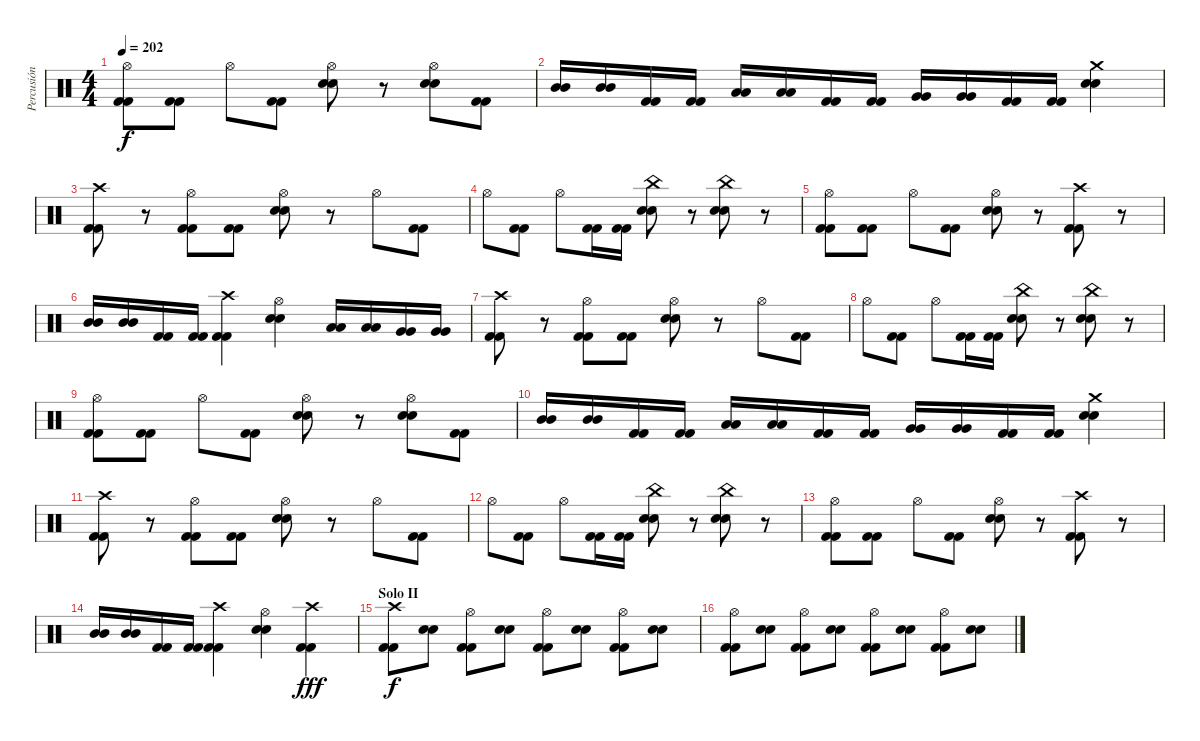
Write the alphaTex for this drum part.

\track ("Percusión" "Percusión") {instrument percussion}
\staff {score}
\articulation defaults
\ts (4 4)
\tempo 202
\clef neutral
\ks c
("Hi-Hat (open)" "Kick (hit) 2" "Kick (hit) 2").8{dy f} ("Kick (hit) 2" "Kick (hit) 2").8 "Hi-Hat (open)".8 ("Kick (hit) 2" "Kick (hit) 2").8 ("Hi-Hat (open)" "Snare (hit) 2" "Snare (hit) 2").8 r.8 ("Hi-Hat (open)" "Snare (hit) 2" "Snare (hit) 2").8 ("Kick (hit) 2" "Kick (hit) 2").8 |
("Mid Tom (hit)" "Mid Tom (hit)").16 ("Mid Tom (hit)" "Mid Tom (hit)").16 ("Kick (hit) 2" "Kick (hit) 2").16 ("Kick (hit) 2" "Kick (hit) 2").16 ("Low Tom (hit)" "Low Tom (hit)").16 ("Low Tom (hit)" "Low Tom (hit)").16 ("Kick (hit) 2" "Kick (hit) 2").16 ("Kick (hit) 2" "Kick (hit) 2").16 ("Very Low Tom (hit)" "Very Low Tom (hit)").16 ("Very Low Tom (hit)" "Very Low Tom (hit)").16 ("Kick (hit) 2" "Kick (hit) 2").16 ("Kick (hit) 2" "Kick (hit) 2").16 ("Crash medium (hit)" "Snare (hit) 2" "Snare (hit) 2").4 |
("Crash high (hit)" "Kick (hit) 2" "Kick (hit) 2").8 r.8 ("Hi-Hat (open)" "Kick (hit) 2" "Kick (hit) 2").8 ("Kick (hit) 2" "Kick (hit) 2").8 ("Hi-Hat (open)" "Snare (hit) 2" "Snare (hit) 2").8 r.8 "Hi-Hat (open)".8 ("Kick (hit) 2" "Kick (hit) 2").8 |
"Hi-Hat (open)".8 ("Kick (hit) 2" "Kick (hit) 2").8 "Hi-Hat (open)".8 ("Kick (hit) 2" "Kick (hit) 2").16 ("Kick (hit) 2" "Kick (hit) 2").16 ("China (hit)" "Snare (hit) 2" "Snare (hit) 2").8 r.8 ("China (hit)" "Snare (hit) 2" "Snare (hit) 2").8 r.8 |
("Hi-Hat (open)" "Kick (hit) 2" "Kick (hit) 2").8 ("Kick (hit) 2" "Kick (hit) 2").8 "Hi-Hat (open)".8 ("Kick (hit) 2" "Kick (hit) 2").8 ("Hi-Hat (open)" "Snare (hit) 2" "Snare (hit) 2").8 r.8 ("Crash high (hit)" "Kick (hit) 2" "Kick (hit) 2").8 r.8 |
("Mid Tom (hit)" "Mid Tom (hit)").16 ("Mid Tom (hit)" "Mid Tom (hit)").16 ("Kick (hit) 2" "Kick (hit) 2").16 ("Kick (hit) 2" "Kick (hit) 2").16 ("Crash high (hit)" "Kick (hit) 2" "Kick (hit) 2").4 ("Hi-Hat (open)" "Snare (hit) 2" "Snare (hit) 2").4 ("Low Tom (hit)" "Low Tom (hit)").16 ("Low Tom (hit)" "Low Tom (hit)").16 ("Very Low Tom (hit)" "Very Low Tom (hit)").16 ("Very Low Tom (hit)" "Very Low Tom (hit)").16 |
("Crash high (hit)" "Kick (hit) 2" "Kick (hit) 2").8 r.8 ("Hi-Hat (open)" "Kick (hit) 2" "Kick (hit) 2").8 ("Kick (hit) 2" "Kick (hit) 2").8 ("Hi-Hat (open)" "Snare (hit) 2" "Snare (hit) 2").8 r.8 "Hi-Hat (open)".8 ("Kick (hit) 2" "Kick (hit) 2").8 |
"Hi-Hat (open)".8 ("Kick (hit) 2" "Kick (hit) 2").8 "Hi-Hat (open)".8 ("Kick (hit) 2" "Kick (hit) 2").16 ("Kick (hit) 2" "Kick (hit) 2").16 ("China (hit)" "Snare (hit) 2" "Snare (hit) 2").8 r.8 ("China (hit)" "Snare (hit) 2" "Snare (hit) 2").8 r.8 |
("Hi-Hat (open)" "Kick (hit) 2" "Kick (hit) 2").8 ("Kick (hit) 2" "Kick (hit) 2").8 "Hi-Hat (open)".8 ("Kick (hit) 2" "Kick (hit) 2").8 ("Hi-Hat (open)" "Snare (hit) 2" "Snare (hit) 2").8 r.8 ("Hi-Hat (open)" "Snare (hit) 2" "Snare (hit) 2").8 ("Kick (hit) 2" "Kick (hit) 2").8 |
("Mid Tom (hit)" "Mid Tom (hit)").16 ("Mid Tom (hit)" "Mid Tom (hit)").16 ("Kick (hit) 2" "Kick (hit) 2").16 ("Kick (hit) 2" "Kick (hit) 2").16 ("Low Tom (hit)" "Low Tom (hit)").16 ("Low Tom (hit)" "Low Tom (hit)").16 ("Kick (hit) 2" "Kick (hit) 2").16 ("Kick (hit) 2" "Kick (hit) 2").16 ("Very Low Tom (hit)" "Very Low Tom (hit)").16 ("Very Low Tom (hit)" "Very Low Tom (hit)").16 ("Kick (hit) 2" "Kick (hit) 2").16 ("Kick (hit) 2" "Kick (hit) 2").16 ("Crash medium (hit)" "Snare (hit) 2" "Snare (hit) 2").4 |
("Crash high (hit)" "Kick (hit) 2" "Kick (hit) 2").8 r.8 ("Hi-Hat (open)" "Kick (hit) 2" "Kick (hit) 2").8 ("Kick (hit) 2" "Kick (hit) 2").8 ("Hi-Hat (open)" "Snare (hit) 2" "Snare (hit) 2").8 r.8 "Hi-Hat (open)".8 ("Kick (hit) 2" "Kick (hit) 2").8 |
"Hi-Hat (open)".8 ("Kick (hit) 2" "Kick (hit) 2").8 "Hi-Hat (open)".8 ("Kick (hit) 2" "Kick (hit) 2").16 ("Kick (hit) 2" "Kick (hit) 2").16 ("China (hit)" "Snare (hit) 2" "Snare (hit) 2").8 r.8 ("China (hit)" "Snare (hit) 2" "Snare (hit) 2").8 r.8 |
("Hi-Hat (open)" "Kick (hit) 2" "Kick (hit) 2").8 ("Kick (hit) 2" "Kick (hit) 2").8 "Hi-Hat (open)".8 ("Kick (hit) 2" "Kick (hit) 2").8 ("Hi-Hat (open)" "Snare (hit) 2" "Snare (hit) 2").8 r.8 ("Crash high (hit)" "Kick (hit) 2" "Kick (hit) 2").8 r.8 |
("Mid Tom (hit)" "Mid Tom (hit)").16 ("Mid Tom (hit)" "Mid Tom (hit)").16 ("Kick (hit) 2" "Kick (hit) 2").16 ("Kick (hit) 2" "Kick (hit) 2").16 ("Crash high (hit)" "Kick (hit) 2" "Kick (hit) 2").4 ("Hi-Hat (open)" "Snare (hit) 2" "Snare (hit) 2").4 ("Crash high (hit)" "Kick (hit) 2" "Kick (hit) 2").4{dy fff} |
\section ("" "Solo II")
("Crash high (hit)" "Kick (hit) 2" "Kick (hit) 2").8{dy f} ("Snare (hit) 2" "Snare (hit) 2").8 ("Hi-Hat (open)" "Kick (hit) 2" "Kick (hit) 2").8 ("Snare (hit) 2" "Snare (hit) 2").8 ("Hi-Hat (open)" "Kick (hit) 2" "Kick (hit) 2").8 ("Snare (hit) 2" "Snare (hit) 2").8 ("Hi-Hat (open)" "Kick (hit) 2" "Kick (hit) 2").8 ("Snare (hit) 2" "Snare (hit) 2").8 |
("Hi-Hat (open)" "Kick (hit) 2" "Kick (hit) 2").8 ("Snare (hit) 2" "Snare (hit) 2").8 ("Hi-Hat (open)" "Kick (hit) 2" "Kick (hit) 2").8 ("Snare (hit) 2" "Snare (hit) 2").8 ("Hi-Hat (open)" "Kick (hit) 2" "Kick (hit) 2").8 ("Snare (hit) 2" "Snare (hit) 2").8 ("Hi-Hat (open)" "Kick (hit) 2" "Kick (hit) 2").8 ("Snare (hit) 2" "Snare (hit) 2").8
